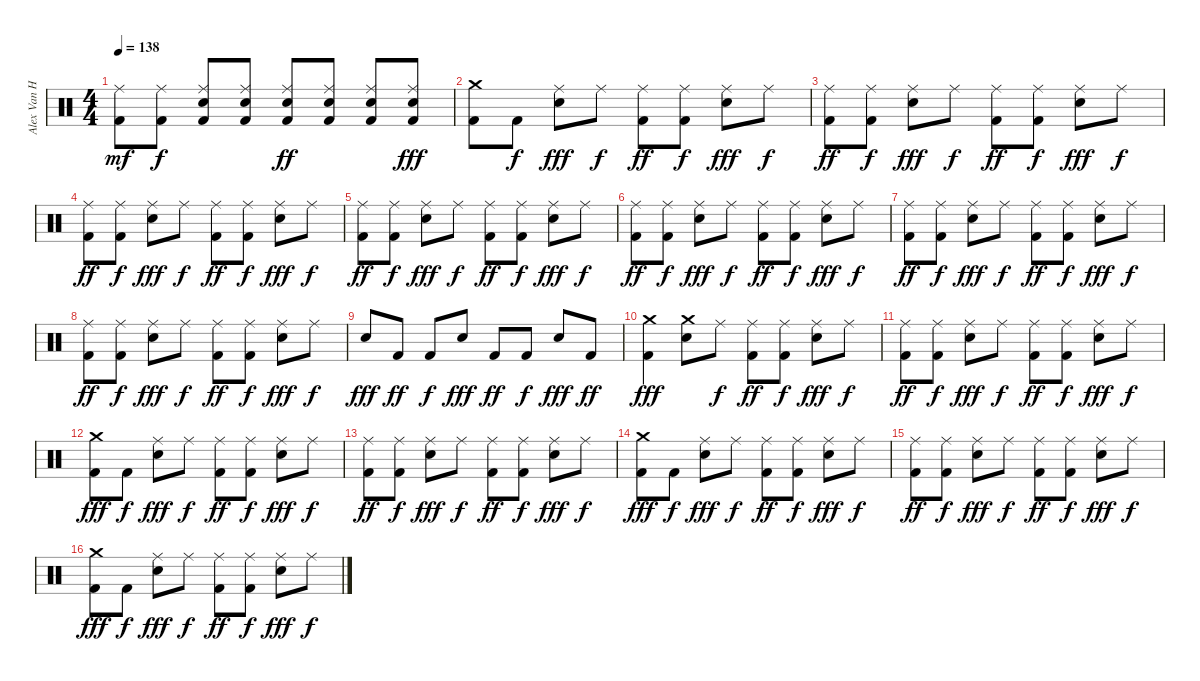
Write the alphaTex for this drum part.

\track ("Alex Van Halen " "Alex Van H") {instrument percussion}
\staff {score}
\articulation defaults
\ts (4 4)
\tempo 138
\clef neutral
\ks c
("Kick (hit) 2" "Ride (middle)").8{dy mf} ("Kick (hit) 2" "Ride (middle)").8{dy f} ("Snare (hit) 2" "Kick (hit) 2" "Ride (middle)").8 ("Snare (hit) 2" "Kick (hit) 2" "Ride (middle)").8 ("Snare (hit) 2" "Kick (hit) 2" "Ride (middle)").8{dy ff} ("Snare (hit) 2" "Kick (hit) 2" "Ride (middle)").8 ("Snare (hit) 2" "Kick (hit) 2" "Ride (middle)").8 ("Snare (hit) 2" "Kick (hit) 2" "Ride (middle)").8{dy fff} |
("Kick (hit) 2" "Crash medium (hit)").8 "Kick (hit) 2".8{dy f} ("Snare (hit) 2" "Ride (middle)").8{dy fff} "Ride (middle)".8{dy f} ("Kick (hit) 2" "Ride (middle)").8{dy ff} ("Kick (hit) 2" "Ride (middle)").8{dy f} ("Snare (hit) 2" "Ride (middle)").8{dy fff} "Ride (middle)".8{dy f} |
("Kick (hit) 2" "Ride (middle)").8{dy ff} ("Kick (hit) 2" "Ride (middle)").8{dy f} ("Snare (hit) 2" "Ride (middle)").8{dy fff} "Ride (middle)".8{dy f} ("Kick (hit) 2" "Ride (middle)").8{dy ff} ("Kick (hit) 2" "Ride (middle)").8{dy f} ("Snare (hit) 2" "Ride (middle)").8{dy fff} "Ride (middle)".8{dy f} |
("Kick (hit) 2" "Ride (middle)").8{dy ff} ("Kick (hit) 2" "Ride (middle)").8{dy f} ("Snare (hit) 2" "Ride (middle)").8{dy fff} "Ride (middle)".8{dy f} ("Kick (hit) 2" "Ride (middle)").8{dy ff} ("Kick (hit) 2" "Ride (middle)").8{dy f} ("Snare (hit) 2" "Ride (middle)").8{dy fff} "Ride (middle)".8{dy f} |
("Kick (hit) 2" "Ride (middle)").8{dy ff} ("Kick (hit) 2" "Ride (middle)").8{dy f} ("Snare (hit) 2" "Ride (middle)").8{dy fff} "Ride (middle)".8{dy f} ("Kick (hit) 2" "Ride (middle)").8{dy ff} ("Kick (hit) 2" "Ride (middle)").8{dy f} ("Snare (hit) 2" "Ride (middle)").8{dy fff} "Ride (middle)".8{dy f} |
("Kick (hit) 2" "Ride (middle)").8{dy ff} ("Kick (hit) 2" "Ride (middle)").8{dy f} ("Snare (hit) 2" "Ride (middle)").8{dy fff} "Ride (middle)".8{dy f} ("Kick (hit) 2" "Ride (middle)").8{dy ff} ("Kick (hit) 2" "Ride (middle)").8{dy f} ("Snare (hit) 2" "Ride (middle)").8{dy fff} "Ride (middle)".8{dy f} |
("Kick (hit) 2" "Ride (middle)").8{dy ff} ("Kick (hit) 2" "Ride (middle)").8{dy f} ("Snare (hit) 2" "Ride (middle)").8{dy fff} "Ride (middle)".8{dy f} ("Kick (hit) 2" "Ride (middle)").8{dy ff} ("Kick (hit) 2" "Ride (middle)").8{dy f} ("Snare (hit) 2" "Ride (middle)").8{dy fff} "Ride (middle)".8{dy f} |
("Kick (hit) 2" "Ride (middle)").8{dy ff} ("Kick (hit) 2" "Ride (middle)").8{dy f} ("Snare (hit) 2" "Ride (middle)").8{dy fff} "Ride (middle)".8{dy f} ("Kick (hit) 2" "Ride (middle)").8{dy ff} ("Kick (hit) 2" "Ride (middle)").8{dy f} ("Snare (hit) 2" "Ride (middle)").8{dy fff} "Ride (middle)".8{dy f} |
"Snare (hit) 2".8{dy fff} "Kick (hit) 2".8{dy ff} "Kick (hit) 2".8{dy f} "Snare (hit) 2".8{dy fff} "Kick (hit) 2".8{dy ff} "Kick (hit) 2".8{dy f} "Snare (hit) 2".8{dy fff} "Kick (hit) 2".8{dy ff} |
("Kick (hit) 2" "Crash medium (hit)").4{dy fff} ("Snare (hit) 2" "Crash medium (hit)").8 "Ride (middle)".8{dy f} ("Kick (hit) 2" "Ride (middle)").8{dy ff} ("Kick (hit) 2" "Ride (middle)").8{dy f} ("Snare (hit) 2" "Ride (middle)").8{dy fff} "Ride (middle)".8{dy f} |
("Kick (hit) 2" "Ride (middle)").8{dy ff} ("Kick (hit) 2" "Ride (middle)").8{dy f} ("Snare (hit) 2" "Ride (middle)").8{dy fff} "Ride (middle)".8{dy f} ("Kick (hit) 2" "Ride (middle)").8{dy ff} ("Kick (hit) 2" "Ride (middle)").8{dy f} ("Snare (hit) 2" "Ride (middle)").8{dy fff} "Ride (middle)".8{dy f} |
("Kick (hit) 2" "Crash medium (hit)").8{dy fff} "Kick (hit) 2".8{dy f} ("Snare (hit) 2" "Ride (middle)").8{dy fff} "Ride (middle)".8{dy f} ("Kick (hit) 2" "Ride (middle)").8{dy ff} ("Kick (hit) 2" "Ride (middle)").8{dy f} ("Snare (hit) 2" "Ride (middle)").8{dy fff} "Ride (middle)".8{dy f} |
("Kick (hit) 2" "Ride (middle)").8{dy ff} ("Kick (hit) 2" "Ride (middle)").8{dy f} ("Snare (hit) 2" "Ride (middle)").8{dy fff} "Ride (middle)".8{dy f} ("Kick (hit) 2" "Ride (middle)").8{dy ff} ("Kick (hit) 2" "Ride (middle)").8{dy f} ("Snare (hit) 2" "Ride (middle)").8{dy fff} "Ride (middle)".8{dy f} |
("Kick (hit) 2" "Crash medium (hit)").8{dy fff} "Kick (hit) 2".8{dy f} ("Snare (hit) 2" "Ride (middle)").8{dy fff} "Ride (middle)".8{dy f} ("Kick (hit) 2" "Ride (middle)").8{dy ff} ("Kick (hit) 2" "Ride (middle)").8{dy f} ("Snare (hit) 2" "Ride (middle)").8{dy fff} "Ride (middle)".8{dy f} |
("Kick (hit) 2" "Ride (middle)").8{dy ff} ("Kick (hit) 2" "Ride (middle)").8{dy f} ("Snare (hit) 2" "Ride (middle)").8{dy fff} "Ride (middle)".8{dy f} ("Kick (hit) 2" "Ride (middle)").8{dy ff} ("Kick (hit) 2" "Ride (middle)").8{dy f} ("Snare (hit) 2" "Ride (middle)").8{dy fff} "Ride (middle)".8{dy f} |
("Kick (hit) 2" "Crash medium (hit)").8{dy fff} "Kick (hit) 2".8{dy f} ("Snare (hit) 2" "Ride (middle)").8{dy fff} "Ride (middle)".8{dy f} ("Kick (hit) 2" "Ride (middle)").8{dy ff} ("Kick (hit) 2" "Ride (middle)").8{dy f} ("Snare (hit) 2" "Ride (middle)").8{dy fff} "Ride (middle)".8{dy f}
